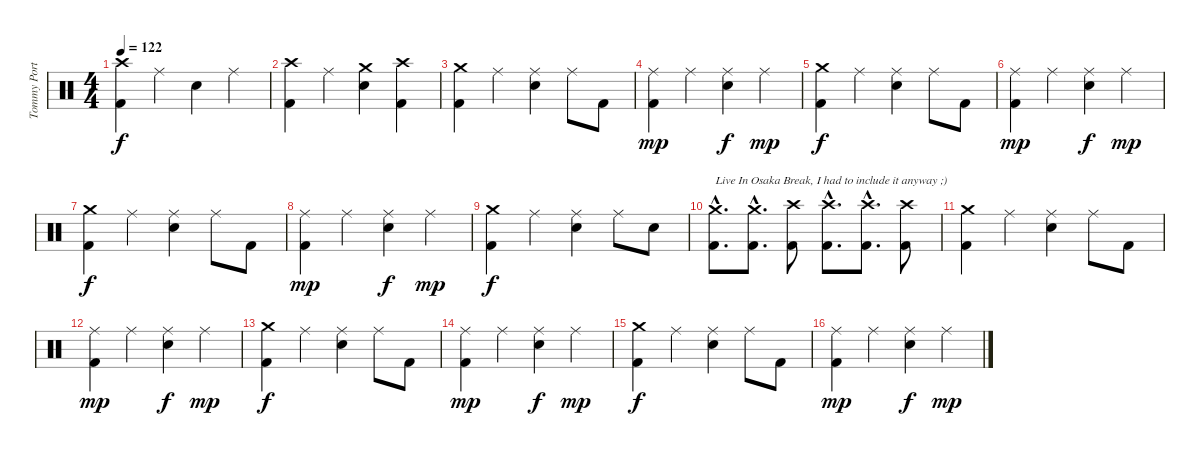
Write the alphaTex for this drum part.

\track ("Tommy Portino" "Tommy Port") {instrument percussion}
\staff {score}
\articulation defaults
\ts (4 4)
\tempo 122
\clef neutral
\ks c
("Crash high (hit)" "Kick (hit) 2").4{dy f} "Ride (middle)".4 "Snare (hit) 2".4 "Ride (middle)".4 |
("Crash high (hit)" "Kick (hit) 2").4 "Ride (middle)".4 ("Crash medium (hit)" "Snare (hit) 2").4 ("Crash high (hit)" "Kick (hit) 2").4 |
("Crash medium (hit)" "Kick (hit) 2").4 "Ride (middle)".4 ("Ride (middle)" "Snare (hit) 2").4 "Ride (middle)".8 "Kick (hit) 2".8 |
("Ride (middle)" "Kick (hit) 2").4{dy mp} "Ride (middle)".4 ("Ride (middle)" "Snare (hit) 2").4{dy f} "Ride (middle)".4{dy mp} |
("Crash medium (hit)" "Kick (hit) 2").4{dy f} "Ride (middle)".4 ("Ride (middle)" "Snare (hit) 2").4 "Ride (middle)".8 "Kick (hit) 2".8 |
("Ride (middle)" "Kick (hit) 2").4{dy mp} "Ride (middle)".4 ("Ride (middle)" "Snare (hit) 2").4{dy f} "Ride (middle)".4{dy mp} |
("Crash medium (hit)" "Kick (hit) 2").4{dy f} "Ride (middle)".4 ("Ride (middle)" "Snare (hit) 2").4 "Ride (middle)".8 "Kick (hit) 2".8 |
("Ride (middle)" "Kick (hit) 2").4{dy mp} "Ride (middle)".4 ("Ride (middle)" "Snare (hit) 2").4{dy f} "Ride (middle)".4{dy mp} |
("Crash medium (hit)" "Kick (hit) 2").4{dy f} "Ride (middle)".4 ("Ride (middle)" "Snare (hit) 2").4 "Ride (middle)".8 "Snare (hit) 2".8 |
("Crash medium (hit)"{hac} "Kick (hit) 2"{hac}).8{d txt "Live In Osaka Break, I had to include it anyway ;)"} ("Crash medium (hit)"{hac} "Kick (hit) 2"{hac}).8{d} ("Crash high (hit)" "Kick (hit) 2").8 ("Crash high (hit)"{hac} "Kick (hit) 2"{hac}).8{d} ("Crash high (hit)"{hac} "Kick (hit) 2"{hac}).8{d} ("Crash high (hit)" "Kick (hit) 2").8 |
("Crash medium (hit)" "Kick (hit) 2").4 "Ride (middle)".4 ("Ride (middle)" "Snare (hit) 2").4 "Ride (middle)".8 "Kick (hit) 2".8 |
("Ride (middle)" "Kick (hit) 2").4{dy mp} "Ride (middle)".4 ("Ride (middle)" "Snare (hit) 2").4{dy f} "Ride (middle)".4{dy mp} |
("Crash medium (hit)" "Kick (hit) 2").4{dy f} "Ride (middle)".4 ("Ride (middle)" "Snare (hit) 2").4 "Ride (middle)".8 "Kick (hit) 2".8 |
("Ride (middle)" "Kick (hit) 2").4{dy mp} "Ride (middle)".4 ("Ride (middle)" "Snare (hit) 2").4{dy f} "Ride (middle)".4{dy mp} |
("Crash medium (hit)" "Kick (hit) 2").4{dy f} "Ride (middle)".4 ("Ride (middle)" "Snare (hit) 2").4 "Ride (middle)".8 "Kick (hit) 2".8 |
("Ride (middle)" "Kick (hit) 2").4{dy mp} "Ride (middle)".4 ("Ride (middle)" "Snare (hit) 2").4{dy f} "Ride (middle)".4{dy mp}
